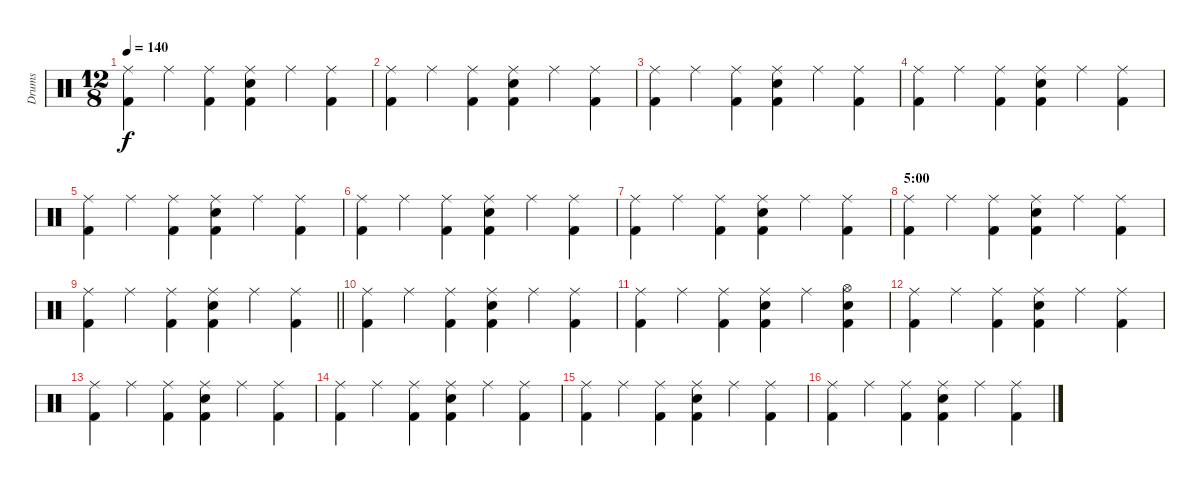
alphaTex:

\track ("Drums" "Drums") {instrument percussion}
\staff {score}
\articulation defaults
\ts (12 8)
\tempo 140
\clef neutral
\ks c
("Ride (middle)" "Kick (hit) 2").4{dy f} "Ride (middle)".4 ("Ride (middle)" "Kick (hit) 2").4 ("Ride (middle)" "Snare (hit) 2" "Kick (hit) 2").4 "Ride (middle)".4 ("Ride (middle)" "Kick (hit) 2").4 |
("Ride (middle)" "Kick (hit) 2").4 "Ride (middle)".4 ("Ride (middle)" "Kick (hit) 2").4 ("Ride (middle)" "Snare (hit) 2" "Kick (hit) 2").4 "Ride (middle)".4 ("Ride (middle)" "Kick (hit) 2").4 |
("Ride (middle)" "Kick (hit) 2").4 "Ride (middle)".4 ("Ride (middle)" "Kick (hit) 2").4 ("Ride (middle)" "Snare (hit) 2" "Kick (hit) 2").4 "Ride (middle)".4 ("Ride (middle)" "Kick (hit) 2").4 |
("Ride (middle)" "Kick (hit) 2").4 "Ride (middle)".4 ("Ride (middle)" "Kick (hit) 2").4 ("Ride (middle)" "Snare (hit) 2" "Kick (hit) 2").4 "Ride (middle)".4 ("Ride (middle)" "Kick (hit) 2").4 |
("Ride (middle)" "Kick (hit) 2").4 "Ride (middle)".4 ("Ride (middle)" "Kick (hit) 2").4 ("Ride (middle)" "Snare (hit) 2" "Kick (hit) 2").4 "Ride (middle)".4 ("Ride (middle)" "Kick (hit) 2").4 |
("Ride (middle)" "Kick (hit) 2").4 "Ride (middle)".4 ("Ride (middle)" "Kick (hit) 2").4 ("Ride (middle)" "Snare (hit) 2" "Kick (hit) 2").4 "Ride (middle)".4 ("Ride (middle)" "Kick (hit) 2").4 |
("Ride (middle)" "Kick (hit) 2").4 "Ride (middle)".4 ("Ride (middle)" "Kick (hit) 2").4 ("Ride (middle)" "Snare (hit) 2" "Kick (hit) 2").4 "Ride (middle)".4 ("Ride (middle)" "Kick (hit) 2").4 |
\section ("" "5:00")
("Ride (middle)" "Kick (hit) 2").4 "Ride (middle)".4 ("Ride (middle)" "Kick (hit) 2").4 ("Ride (middle)" "Snare (hit) 2" "Kick (hit) 2").4 "Ride (middle)".4 ("Ride (middle)" "Kick (hit) 2").4 |
\barLineRight lightlight
("Ride (middle)" "Kick (hit) 2").4 "Ride (middle)".4 ("Ride (middle)" "Kick (hit) 2").4 ("Ride (middle)" "Snare (hit) 2" "Kick (hit) 2").4 "Ride (middle)".4 ("Ride (middle)" "Kick (hit) 2").4 |
("Ride (middle)" "Kick (hit) 2").4 "Ride (middle)".4 ("Ride (middle)" "Kick (hit) 2").4 ("Ride (middle)" "Snare (hit) 2" "Kick (hit) 2").4 "Ride (middle)".4 ("Ride (middle)" "Kick (hit) 2").4 |
("Ride (middle)" "Kick (hit) 2").4 "Ride (middle)".4 ("Ride (middle)" "Kick (hit) 2").4 ("Ride (middle)" "Snare (hit) 2" "Kick (hit) 2").4 "Ride (middle)".4 ("Hi-Hat (open)" "Snare (hit) 2" "Kick (hit) 2").4 |
("Ride (middle)" "Kick (hit) 2").4 "Ride (middle)".4 ("Ride (middle)" "Kick (hit) 2").4 ("Ride (middle)" "Snare (hit) 2" "Kick (hit) 2").4 "Ride (middle)".4 ("Ride (middle)" "Kick (hit) 2").4 |
("Ride (middle)" "Kick (hit) 2").4 "Ride (middle)".4 ("Ride (middle)" "Kick (hit) 2").4 ("Ride (middle)" "Snare (hit) 2" "Kick (hit) 2").4 "Ride (middle)".4 ("Ride (middle)" "Kick (hit) 2").4 |
("Ride (middle)" "Kick (hit) 2").4 "Ride (middle)".4 ("Ride (middle)" "Kick (hit) 2").4 ("Ride (middle)" "Snare (hit) 2" "Kick (hit) 2").4 "Ride (middle)".4 ("Ride (middle)" "Kick (hit) 2").4 |
("Ride (middle)" "Kick (hit) 2").4 "Ride (middle)".4 ("Ride (middle)" "Kick (hit) 2").4 ("Ride (middle)" "Snare (hit) 2" "Kick (hit) 2").4 "Ride (middle)".4 ("Ride (middle)" "Kick (hit) 2").4 |
("Ride (middle)" "Kick (hit) 2").4 "Ride (middle)".4 ("Ride (middle)" "Kick (hit) 2").4 ("Ride (middle)" "Snare (hit) 2" "Kick (hit) 2").4 "Ride (middle)".4 ("Ride (middle)" "Kick (hit) 2").4
